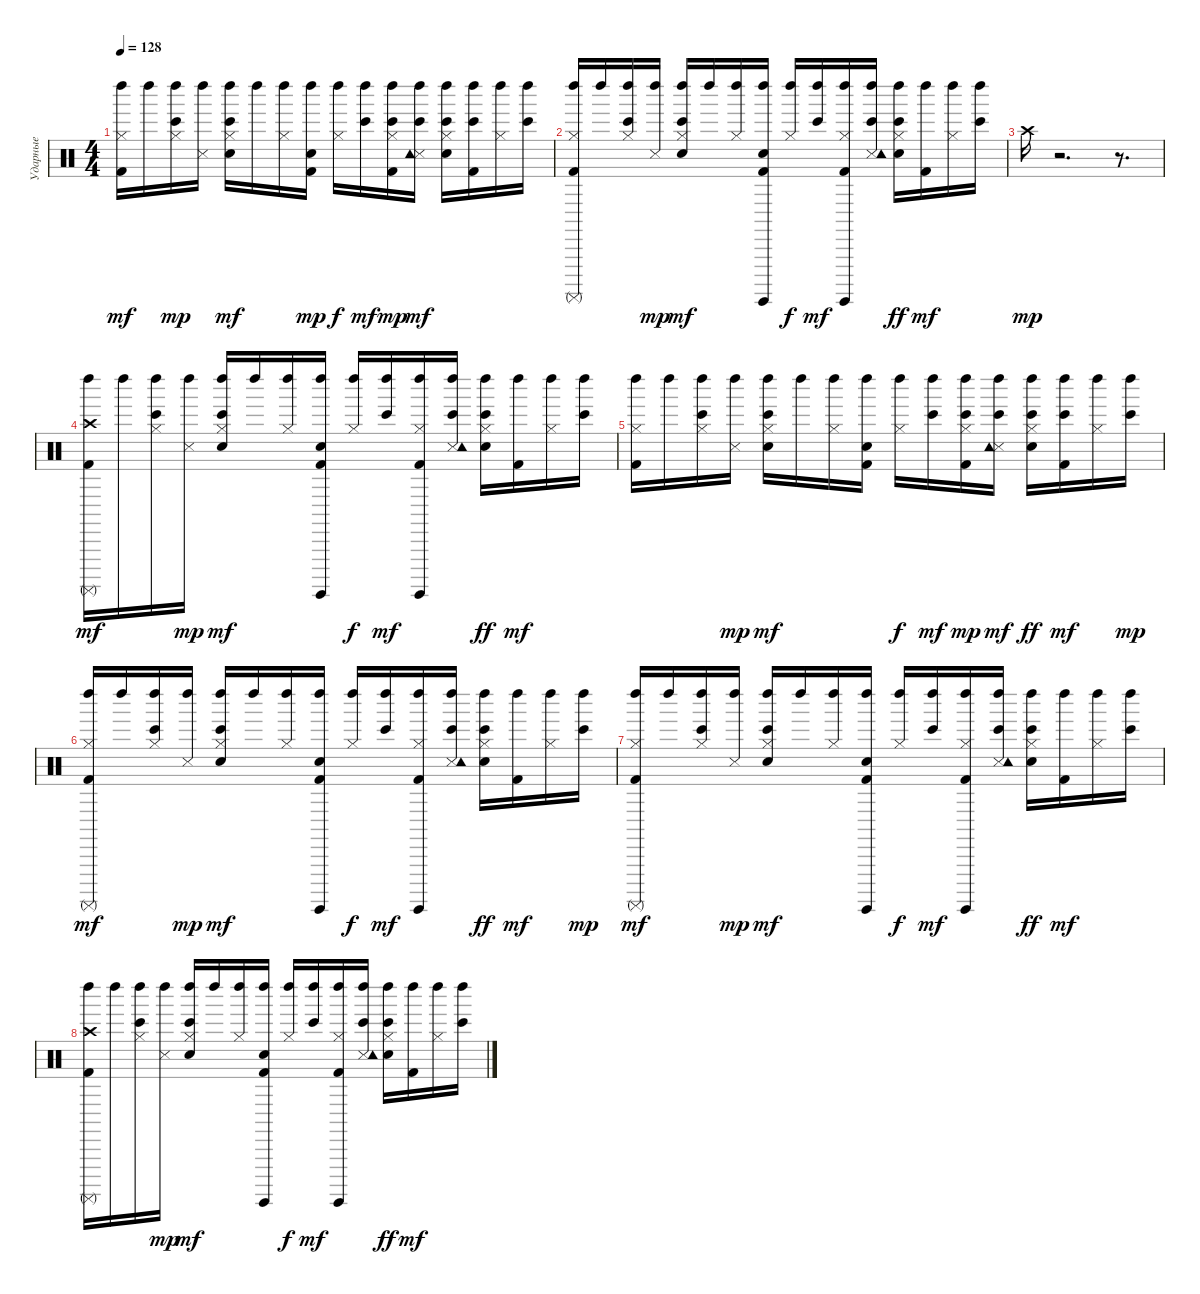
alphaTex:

\track ("Ударные" "Ударные") {instrument percussion}
\staff {score}
\articulation defaults
\ts (4 4)
\tempo 128
\clef neutral
\ks c
("Kick (hit) 2" "Hi-Hat (closed)" "Left Maraca (hit)").16{dy mf} "Left Maraca (hit)".16 ("Bongo High (hit)" "Hi-Hat (closed)" "Left Maraca (hit)").16{dy mp} ("Snare (side stick) 3" "Left Maraca (hit)").16 ("Bongo High (hit)" "Electric Snare (hit)" "Hi-Hat (closed)" "Left Maraca (hit)").16{dy mf} "Left Maraca (hit)".16 ("Hi-Hat (closed)" "Left Maraca (hit)").16 ("Kick (hit) 2" "Electric Snare (hit)" "Left Maraca (hit)").16{dy mp} ("Hi-Hat (closed)" "Left Maraca (hit)").16{dy f} ("Bongo High (hit)" "Left Maraca (hit)").16{dy mf} ("Bongo High (hit)" "Kick (hit) 2" "Hi-Hat (closed)" "Left Maraca (hit)").16{dy mp} ("Bongo High (hit)" "Snare (side stick) 3" "Tambourine (hit)" "Left Maraca (hit)").16{dy mf} ("Bongo High (hit)" "Electric Snare (hit)" "Hi-Hat (closed)" "Left Maraca (hit)").16 ("Bongo High (hit)" "Kick (hit) 2" "Left Maraca (hit)").16 ("Hi-Hat (closed)" "Left Maraca (hit)").16 ("Bongo High (hit)" "Left Maraca (hit)").16 |
("Kick (hit) 2" "Hi-Hat (closed)" "Left Maraca (hit)" "Surdo (mute)").16 "Left Maraca (hit)".16 ("Bongo High (hit)" "Hi-Hat (closed)" "Left Maraca (hit)").16 ("Snare (side stick) 3" "Left Maraca (hit)").16{dy mp} ("Bongo High (hit)" "Electric Snare (hit)" "Hi-Hat (closed)" "Left Maraca (hit)").16{dy mf} "Left Maraca (hit)".16 ("Hi-Hat (closed)" "Left Maraca (hit)").16 ("Kick (hit) 2" "Electric Snare (hit)" "Left Maraca (hit)" "Surdo (hit)").16 ("Hi-Hat (closed)" "Left Maraca (hit)").16{dy f} ("Bongo High (hit)" "Left Maraca (hit)").16{dy mf} ("Kick (hit) 2" "Hi-Hat (closed)" "Left Maraca (hit)" "Surdo (hit)").16 ("Bongo High (hit)" "Snare (side stick) 3" "Tambourine (hit)" "Left Maraca (hit)").16 ("Bongo High (hit)" "Electric Snare (hit)" "Hi-Hat (closed)" "Left Maraca (hit)").16{dy ff} ("Kick (hit) 2" "Left Maraca (hit)").16{dy mf} ("Hi-Hat (closed)" "Left Maraca (hit)").16 ("Bongo High (hit)" "Left Maraca (hit)").16 |
"Crash high (hit)".16{dy mp} r.2{d} r.8{d} |
("Kick (hit) 2" "Crash high (hit)" "Left Maraca (hit)" "Surdo (mute)").16{dy mf} "Left Maraca (hit)".16 ("Bongo High (hit)" "Hi-Hat (closed)" "Left Maraca (hit)").16 ("Snare (side stick) 3" "Left Maraca (hit)").16{dy mp} ("Bongo High (hit)" "Electric Snare (hit)" "Hi-Hat (closed)" "Left Maraca (hit)").16{dy mf} "Left Maraca (hit)".16 ("Hi-Hat (closed)" "Left Maraca (hit)").16 ("Kick (hit) 2" "Electric Snare (hit)" "Left Maraca (hit)" "Surdo (hit)").16 ("Hi-Hat (closed)" "Left Maraca (hit)").16{dy f} ("Bongo High (hit)" "Left Maraca (hit)").16{dy mf} ("Kick (hit) 2" "Hi-Hat (closed)" "Left Maraca (hit)" "Surdo (hit)").16 ("Bongo High (hit)" "Snare (side stick) 3" "Tambourine (hit)" "Left Maraca (hit)").16 ("Bongo High (hit)" "Electric Snare (hit)" "Hi-Hat (closed)" "Left Maraca (hit)").16{dy ff} ("Kick (hit) 2" "Left Maraca (hit)").16{dy mf} ("Hi-Hat (closed)" "Left Maraca (hit)").16 ("Bongo High (hit)" "Left Maraca (hit)").16 |
("Kick (hit) 2" "Hi-Hat (closed)" "Left Maraca (hit)").16 "Left Maraca (hit)".16 ("Bongo High (hit)" "Hi-Hat (closed)" "Left Maraca (hit)").16 ("Snare (side stick) 3" "Left Maraca (hit)").16{dy mp} ("Bongo High (hit)" "Electric Snare (hit)" "Hi-Hat (closed)" "Left Maraca (hit)").16{dy mf} "Left Maraca (hit)".16 ("Hi-Hat (closed)" "Left Maraca (hit)").16 ("Kick (hit) 2" "Electric Snare (hit)" "Left Maraca (hit)").16 ("Hi-Hat (closed)" "Left Maraca (hit)").16{dy f} ("Bongo High (hit)" "Left Maraca (hit)").16{dy mf} ("Bongo High (hit)" "Kick (hit) 2" "Hi-Hat (closed)" "Left Maraca (hit)").16{dy mp} ("Bongo High (hit)" "Snare (side stick) 3" "Tambourine (hit)" "Left Maraca (hit)").16{dy mf} ("Bongo High (hit)" "Electric Snare (hit)" "Hi-Hat (closed)" "Left Maraca (hit)").16{dy ff} ("Bongo High (hit)" "Kick (hit) 2" "Left Maraca (hit)").16{dy mf} ("Hi-Hat (closed)" "Left Maraca (hit)").16 ("Bongo High (hit)" "Left Maraca (hit)").16{dy mp} |
("Kick (hit) 2" "Hi-Hat (closed)" "Left Maraca (hit)" "Surdo (mute)").16{dy mf} "Left Maraca (hit)".16 ("Bongo High (hit)" "Hi-Hat (closed)" "Left Maraca (hit)").16 ("Snare (side stick) 3" "Left Maraca (hit)").16{dy mp} ("Bongo High (hit)" "Electric Snare (hit)" "Hi-Hat (closed)" "Left Maraca (hit)").16{dy mf} "Left Maraca (hit)".16 ("Hi-Hat (closed)" "Left Maraca (hit)").16 ("Kick (hit) 2" "Electric Snare (hit)" "Left Maraca (hit)" "Surdo (hit)").16 ("Hi-Hat (closed)" "Left Maraca (hit)").16{dy f} ("Bongo High (hit)" "Left Maraca (hit)").16{dy mf} ("Kick (hit) 2" "Hi-Hat (closed)" "Left Maraca (hit)" "Surdo (hit)").16 ("Bongo High (hit)" "Snare (side stick) 3" "Tambourine (hit)" "Left Maraca (hit)").16 ("Bongo High (hit)" "Electric Snare (hit)" "Hi-Hat (closed)" "Left Maraca (hit)").16{dy ff} ("Kick (hit) 2" "Left Maraca (hit)").16{dy mf} ("Hi-Hat (closed)" "Left Maraca (hit)").16 ("Bongo High (hit)" "Left Maraca (hit)").16{dy mp} |
("Kick (hit) 2" "Hi-Hat (closed)" "Left Maraca (hit)" "Surdo (mute)").16{dy mf} "Left Maraca (hit)".16 ("Bongo High (hit)" "Hi-Hat (closed)" "Left Maraca (hit)").16 ("Snare (side stick) 3" "Left Maraca (hit)").16{dy mp} ("Bongo High (hit)" "Electric Snare (hit)" "Hi-Hat (closed)" "Left Maraca (hit)").16{dy mf} "Left Maraca (hit)".16 ("Hi-Hat (closed)" "Left Maraca (hit)").16 ("Kick (hit) 2" "Electric Snare (hit)" "Left Maraca (hit)" "Surdo (hit)").16 ("Hi-Hat (closed)" "Left Maraca (hit)").16{dy f} ("Bongo High (hit)" "Left Maraca (hit)").16{dy mf} ("Kick (hit) 2" "Hi-Hat (closed)" "Left Maraca (hit)" "Surdo (hit)").16 ("Bongo High (hit)" "Snare (side stick) 3" "Tambourine (hit)" "Left Maraca (hit)").16 ("Bongo High (hit)" "Electric Snare (hit)" "Hi-Hat (closed)" "Left Maraca (hit)").16{dy ff} ("Kick (hit) 2" "Left Maraca (hit)").16{dy mf} ("Hi-Hat (closed)" "Left Maraca (hit)").16 ("Bongo High (hit)" "Left Maraca (hit)").16 |
("Kick (hit) 2" "Crash high (hit)" "Left Maraca (hit)" "Surdo (mute)").16 "Left Maraca (hit)".16 ("Bongo High (hit)" "Hi-Hat (closed)" "Left Maraca (hit)").16 ("Snare (side stick) 3" "Left Maraca (hit)").16{dy mp} ("Bongo High (hit)" "Electric Snare (hit)" "Hi-Hat (closed)" "Left Maraca (hit)").16{dy mf} "Left Maraca (hit)".16 ("Hi-Hat (closed)" "Left Maraca (hit)").16 ("Kick (hit) 2" "Electric Snare (hit)" "Left Maraca (hit)" "Surdo (hit)").16 ("Hi-Hat (closed)" "Left Maraca (hit)").16{dy f} ("Bongo High (hit)" "Left Maraca (hit)").16{dy mf} ("Kick (hit) 2" "Hi-Hat (closed)" "Left Maraca (hit)" "Surdo (hit)").16 ("Bongo High (hit)" "Snare (side stick) 3" "Tambourine (hit)" "Left Maraca (hit)").16 ("Bongo High (hit)" "Electric Snare (hit)" "Hi-Hat (closed)" "Left Maraca (hit)").16{dy ff} ("Kick (hit) 2" "Left Maraca (hit)").16{dy mf} ("Hi-Hat (closed)" "Left Maraca (hit)").16 ("Bongo High (hit)" "Left Maraca (hit)").16
